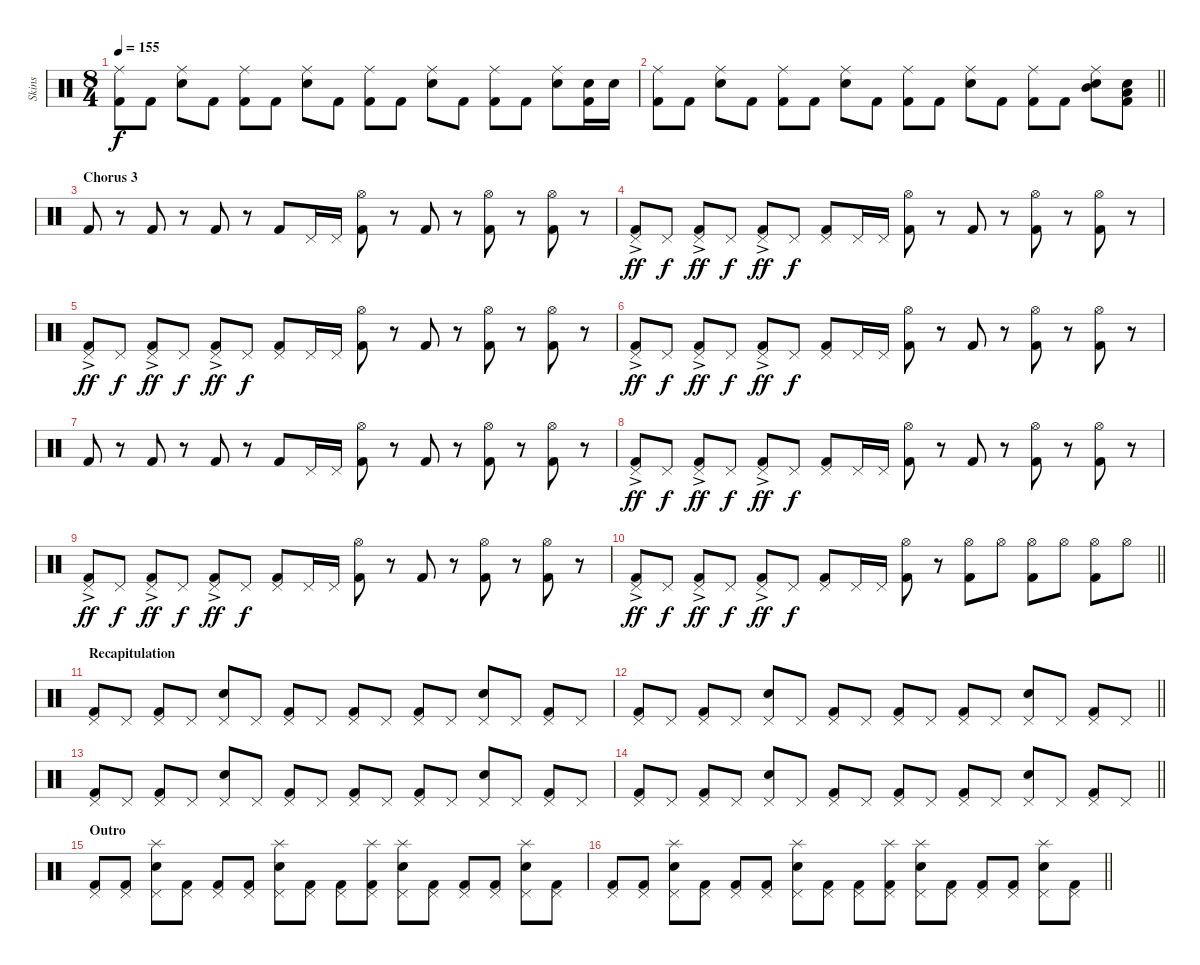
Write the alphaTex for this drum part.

\track ("Skins" "Skins") {instrument percussion}
\staff {score}
\articulation defaults
\ts (8 4)
\tempo 155
\clef neutral
\ks c
("Ride (middle)" "Kick (hit) 2").8{dy f} "Kick (hit) 2".8 ("Ride (middle)" "Electric Snare (hit)").8 "Kick (hit) 2".8 ("Ride (middle)" "Kick (hit) 2").8 "Kick (hit) 2".8 ("Ride (middle)" "Electric Snare (hit)").8 "Kick (hit) 2".8 ("Ride (middle)" "Kick (hit) 2").8 "Kick (hit) 2".8 ("Ride (middle)" "Electric Snare (hit)").8 "Kick (hit) 2".8 ("Ride (middle)" "Kick (hit) 2").8 "Kick (hit) 2".8 ("Ride (middle)" "Electric Snare (hit)").8 ("Electric Snare (hit)" "Kick (hit) 2").16 "Electric Snare (hit)".16 |
\barLineRight lightlight
("Ride (middle)" "Kick (hit) 2").8 "Kick (hit) 2".8 ("Ride (middle)" "Electric Snare (hit)").8 "Kick (hit) 2".8 ("Ride (middle)" "Kick (hit) 2").8 "Kick (hit) 2".8 ("Ride (middle)" "Electric Snare (hit)").8 "Kick (hit) 2".8 ("Ride (middle)" "Kick (hit) 2").8 "Kick (hit) 2".8 ("Ride (middle)" "Electric Snare (hit)").8 "Kick (hit) 2".8 ("Ride (middle)" "Kick (hit) 2").8 "Kick (hit) 2".8 ("Ride (middle)" "Mid Tom (hit)" "Electric Snare (hit)").8 ("Low Tom (hit)" "Electric Snare (hit)" "Kick (hit) 2").8 |
\section ("" "Chorus 3")
"Kick (hit) 2".8 r.8 "Kick (hit) 2".8 r.8 "Kick (hit) 2".8 r.8 "Kick (hit) 2".8 "Pedal Hi-Hat (hit)".16 "Pedal Hi-Hat (hit)".16 ("Hi-Hat (open)" "Kick (hit) 2").8 r.8 "Kick (hit) 2".8 r.8 ("Hi-Hat (open)" "Kick (hit) 2").8 r.8 ("Hi-Hat (open)" "Kick (hit) 2").8 r.8 |
("Pedal Hi-Hat (hit)"{ac} "Kick (hit) 2").8{dy ff} "Pedal Hi-Hat (hit)".8{dy f} ("Pedal Hi-Hat (hit)"{ac} "Kick (hit) 2").8{dy ff} "Pedal Hi-Hat (hit)".8{dy f} ("Pedal Hi-Hat (hit)"{ac} "Kick (hit) 2").8{dy ff} "Pedal Hi-Hat (hit)".8{dy f} ("Pedal Hi-Hat (hit)" "Kick (hit) 2").8 "Pedal Hi-Hat (hit)".16 "Pedal Hi-Hat (hit)".16 ("Hi-Hat (open)" "Kick (hit) 2").8 r.8 "Kick (hit) 2".8 r.8 ("Hi-Hat (open)" "Kick (hit) 2").8 r.8 ("Hi-Hat (open)" "Kick (hit) 2").8 r.8 |
("Pedal Hi-Hat (hit)"{ac} "Kick (hit) 2").8{dy ff} "Pedal Hi-Hat (hit)".8{dy f} ("Pedal Hi-Hat (hit)"{ac} "Kick (hit) 2").8{dy ff} "Pedal Hi-Hat (hit)".8{dy f} ("Pedal Hi-Hat (hit)"{ac} "Kick (hit) 2").8{dy ff} "Pedal Hi-Hat (hit)".8{dy f} ("Pedal Hi-Hat (hit)" "Kick (hit) 2").8 "Pedal Hi-Hat (hit)".16 "Pedal Hi-Hat (hit)".16 ("Hi-Hat (open)" "Kick (hit) 2").8 r.8 "Kick (hit) 2".8 r.8 ("Hi-Hat (open)" "Kick (hit) 2").8 r.8 ("Hi-Hat (open)" "Kick (hit) 2").8 r.8 |
("Pedal Hi-Hat (hit)"{ac} "Kick (hit) 2").8{dy ff} "Pedal Hi-Hat (hit)".8{dy f} ("Pedal Hi-Hat (hit)"{ac} "Kick (hit) 2").8{dy ff} "Pedal Hi-Hat (hit)".8{dy f} ("Pedal Hi-Hat (hit)"{ac} "Kick (hit) 2").8{dy ff} "Pedal Hi-Hat (hit)".8{dy f} ("Pedal Hi-Hat (hit)" "Kick (hit) 2").8 "Pedal Hi-Hat (hit)".16 "Pedal Hi-Hat (hit)".16 ("Hi-Hat (open)" "Kick (hit) 2").8 r.8 "Kick (hit) 2".8 r.8 ("Hi-Hat (open)" "Kick (hit) 2").8 r.8 ("Hi-Hat (open)" "Kick (hit) 2").8 r.8 |
"Kick (hit) 2".8 r.8 "Kick (hit) 2".8 r.8 "Kick (hit) 2".8 r.8 "Kick (hit) 2".8 "Pedal Hi-Hat (hit)".16 "Pedal Hi-Hat (hit)".16 ("Hi-Hat (open)" "Kick (hit) 2").8 r.8 "Kick (hit) 2".8 r.8 ("Hi-Hat (open)" "Kick (hit) 2").8 r.8 ("Hi-Hat (open)" "Kick (hit) 2").8 r.8 |
("Pedal Hi-Hat (hit)"{ac} "Kick (hit) 2").8{dy ff} "Pedal Hi-Hat (hit)".8{dy f} ("Pedal Hi-Hat (hit)"{ac} "Kick (hit) 2").8{dy ff} "Pedal Hi-Hat (hit)".8{dy f} ("Pedal Hi-Hat (hit)"{ac} "Kick (hit) 2").8{dy ff} "Pedal Hi-Hat (hit)".8{dy f} ("Pedal Hi-Hat (hit)" "Kick (hit) 2").8 "Pedal Hi-Hat (hit)".16 "Pedal Hi-Hat (hit)".16 ("Hi-Hat (open)" "Kick (hit) 2").8 r.8 "Kick (hit) 2".8 r.8 ("Hi-Hat (open)" "Kick (hit) 2").8 r.8 ("Hi-Hat (open)" "Kick (hit) 2").8 r.8 |
("Pedal Hi-Hat (hit)"{ac} "Kick (hit) 2").8{dy ff} "Pedal Hi-Hat (hit)".8{dy f} ("Pedal Hi-Hat (hit)"{ac} "Kick (hit) 2").8{dy ff} "Pedal Hi-Hat (hit)".8{dy f} ("Pedal Hi-Hat (hit)"{ac} "Kick (hit) 2").8{dy ff} "Pedal Hi-Hat (hit)".8{dy f} ("Pedal Hi-Hat (hit)" "Kick (hit) 2").8 "Pedal Hi-Hat (hit)".16 "Pedal Hi-Hat (hit)".16 ("Hi-Hat (open)" "Kick (hit) 2").8 r.8 "Kick (hit) 2".8 r.8 ("Hi-Hat (open)" "Kick (hit) 2").8 r.8 ("Hi-Hat (open)" "Kick (hit) 2").8 r.8 |
\barLineRight lightlight
("Pedal Hi-Hat (hit)"{ac} "Kick (hit) 2").8{dy ff} "Pedal Hi-Hat (hit)".8{dy f} ("Pedal Hi-Hat (hit)"{ac} "Kick (hit) 2").8{dy ff} "Pedal Hi-Hat (hit)".8{dy f} ("Pedal Hi-Hat (hit)"{ac} "Kick (hit) 2").8{dy ff} "Pedal Hi-Hat (hit)".8{dy f} ("Pedal Hi-Hat (hit)" "Kick (hit) 2").8 "Pedal Hi-Hat (hit)".16 "Pedal Hi-Hat (hit)".16 ("Hi-Hat (open)" "Kick (hit) 2").8 r.8 ("Hi-Hat (open)" "Kick (hit) 2").8 "Hi-Hat (open)".8 ("Hi-Hat (open)" "Kick (hit) 2").8 "Hi-Hat (open)".8 ("Hi-Hat (open)" "Kick (hit) 2").8 "Hi-Hat (open)".8 |
\section ("" "Recapitulation")
("Pedal Hi-Hat (hit)" "Kick (hit) 2").8 "Pedal Hi-Hat (hit)".8 ("Pedal Hi-Hat (hit)" "Kick (hit) 2").8 "Pedal Hi-Hat (hit)".8 ("Pedal Hi-Hat (hit)" "Electric Snare (hit)").8 "Pedal Hi-Hat (hit)".8 ("Pedal Hi-Hat (hit)" "Kick (hit) 2").8 "Pedal Hi-Hat (hit)".8 ("Pedal Hi-Hat (hit)" "Kick (hit) 2").8 "Pedal Hi-Hat (hit)".8 ("Pedal Hi-Hat (hit)" "Kick (hit) 2").8 "Pedal Hi-Hat (hit)".8 ("Pedal Hi-Hat (hit)" "Electric Snare (hit)").8 "Pedal Hi-Hat (hit)".8 ("Pedal Hi-Hat (hit)" "Kick (hit) 2").8 "Pedal Hi-Hat (hit)".8 |
\barLineRight lightlight
("Pedal Hi-Hat (hit)" "Kick (hit) 2").8 "Pedal Hi-Hat (hit)".8 ("Pedal Hi-Hat (hit)" "Kick (hit) 2").8 "Pedal Hi-Hat (hit)".8 ("Pedal Hi-Hat (hit)" "Electric Snare (hit)").8 "Pedal Hi-Hat (hit)".8 ("Pedal Hi-Hat (hit)" "Kick (hit) 2").8 "Pedal Hi-Hat (hit)".8 ("Pedal Hi-Hat (hit)" "Kick (hit) 2").8 "Pedal Hi-Hat (hit)".8 ("Pedal Hi-Hat (hit)" "Kick (hit) 2").8 "Pedal Hi-Hat (hit)".8 ("Pedal Hi-Hat (hit)" "Electric Snare (hit)").8 "Pedal Hi-Hat (hit)".8 ("Pedal Hi-Hat (hit)" "Kick (hit) 2").8 "Pedal Hi-Hat (hit)".8 |
("Pedal Hi-Hat (hit)" "Kick (hit) 2").8 "Pedal Hi-Hat (hit)".8 ("Pedal Hi-Hat (hit)" "Kick (hit) 2").8 "Pedal Hi-Hat (hit)".8 ("Pedal Hi-Hat (hit)" "Electric Snare (hit)").8 "Pedal Hi-Hat (hit)".8 ("Pedal Hi-Hat (hit)" "Kick (hit) 2").8 "Pedal Hi-Hat (hit)".8 ("Pedal Hi-Hat (hit)" "Kick (hit) 2").8 "Pedal Hi-Hat (hit)".8 ("Pedal Hi-Hat (hit)" "Kick (hit) 2").8 "Pedal Hi-Hat (hit)".8 ("Pedal Hi-Hat (hit)" "Electric Snare (hit)").8 "Pedal Hi-Hat (hit)".8 ("Pedal Hi-Hat (hit)" "Kick (hit) 2").8 "Pedal Hi-Hat (hit)".8 |
\barLineRight lightlight
("Pedal Hi-Hat (hit)" "Kick (hit) 2").8 "Pedal Hi-Hat (hit)".8 ("Pedal Hi-Hat (hit)" "Kick (hit) 2").8 "Pedal Hi-Hat (hit)".8 ("Pedal Hi-Hat (hit)" "Electric Snare (hit)").8 "Pedal Hi-Hat (hit)".8 ("Pedal Hi-Hat (hit)" "Kick (hit) 2").8 "Pedal Hi-Hat (hit)".8 ("Pedal Hi-Hat (hit)" "Kick (hit) 2").8 "Pedal Hi-Hat (hit)".8 ("Pedal Hi-Hat (hit)" "Kick (hit) 2").8 "Pedal Hi-Hat (hit)".8 ("Pedal Hi-Hat (hit)" "Electric Snare (hit)").8 "Pedal Hi-Hat (hit)".8 ("Pedal Hi-Hat (hit)" "Kick (hit) 2").8 "Pedal Hi-Hat (hit)".8 |
\section ("" "Outro")
("Pedal Hi-Hat (hit)" "Kick (hit) 2").8 ("Pedal Hi-Hat (hit)" "Kick (hit) 2").8 ("Pedal Hi-Hat (hit)" "Splash (hit)" "Electric Snare (hit)").8 ("Pedal Hi-Hat (hit)" "Kick (hit) 2").8 ("Pedal Hi-Hat (hit)" "Kick (hit) 2").8 ("Pedal Hi-Hat (hit)" "Kick (hit) 2").8 ("Pedal Hi-Hat (hit)" "Splash (hit)" "Electric Snare (hit)").8 ("Pedal Hi-Hat (hit)" "Kick (hit) 2").8 ("Pedal Hi-Hat (hit)" "Kick (hit) 2").8 ("Pedal Hi-Hat (hit)" "Splash (hit)" "Kick (hit) 2").8 ("Pedal Hi-Hat (hit)" "Splash (hit)" "Electric Snare (hit)").8 ("Pedal Hi-Hat (hit)" "Kick (hit) 2").8 ("Pedal Hi-Hat (hit)" "Kick (hit) 2").8 ("Pedal Hi-Hat (hit)" "Kick (hit) 2").8 ("Pedal Hi-Hat (hit)" "Splash (hit)" "Electric Snare (hit)").8 ("Pedal Hi-Hat (hit)" "Kick (hit) 2").8 |
\barLineRight lightlight
("Pedal Hi-Hat (hit)" "Kick (hit) 2").8 ("Pedal Hi-Hat (hit)" "Kick (hit) 2").8 ("Pedal Hi-Hat (hit)" "Splash (hit)" "Electric Snare (hit)").8 ("Pedal Hi-Hat (hit)" "Kick (hit) 2").8 ("Pedal Hi-Hat (hit)" "Kick (hit) 2").8 ("Pedal Hi-Hat (hit)" "Kick (hit) 2").8 ("Pedal Hi-Hat (hit)" "Splash (hit)" "Electric Snare (hit)").8 ("Pedal Hi-Hat (hit)" "Kick (hit) 2").8 ("Pedal Hi-Hat (hit)" "Kick (hit) 2").8 ("Pedal Hi-Hat (hit)" "Splash (hit)" "Kick (hit) 2").8 ("Pedal Hi-Hat (hit)" "Splash (hit)" "Electric Snare (hit)").8 ("Pedal Hi-Hat (hit)" "Kick (hit) 2").8 ("Pedal Hi-Hat (hit)" "Kick (hit) 2").8 ("Pedal Hi-Hat (hit)" "Kick (hit) 2").8 ("Pedal Hi-Hat (hit)" "Splash (hit)" "Electric Snare (hit)").8 ("Pedal Hi-Hat (hit)" "Kick (hit) 2").8
